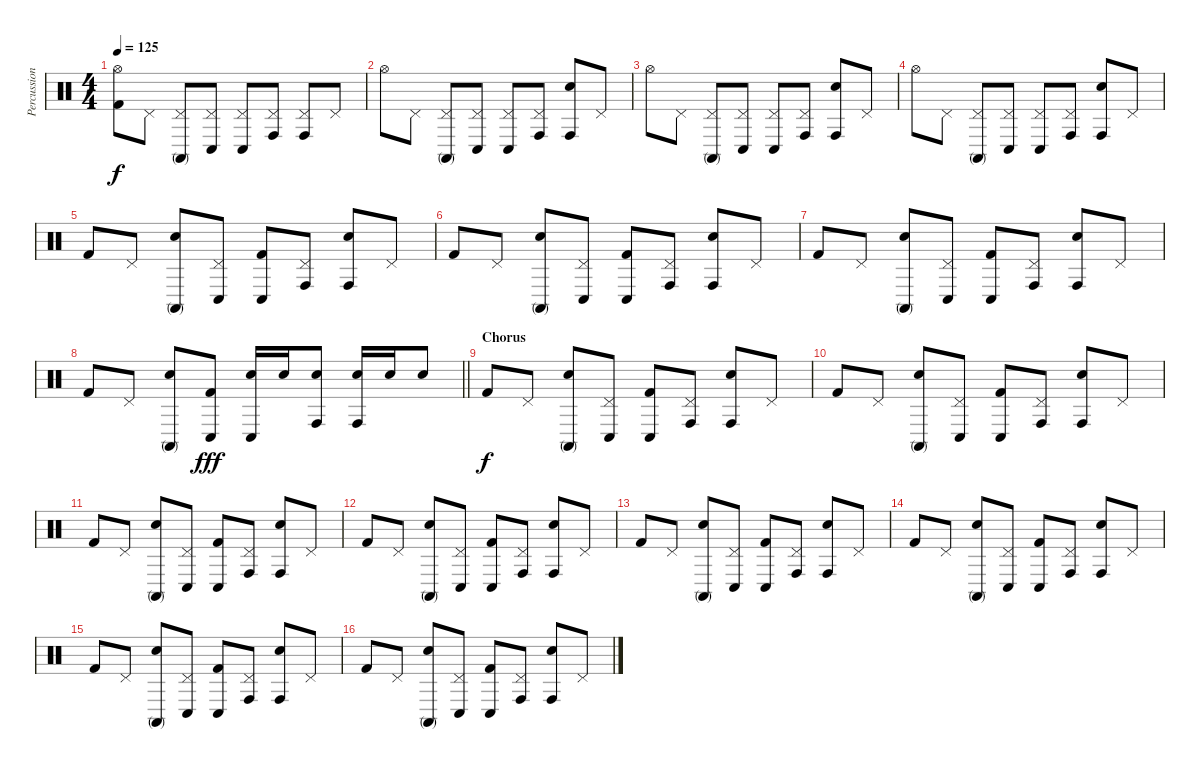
\track ("Percussion" "Percussion") {instrument percussion}
\staff {score}
\articulation defaults
\ts (4 4)
\tempo 125
\clef neutral
\ks c
("Hi-Hat (open)" "Kick (hit) 2").8{dy f} "Pedal Hi-Hat (hit)".8 ("Pedal Hi-Hat (hit)" "Conga high (mute)").8 ("Pedal Hi-Hat (hit)" "Conga low (hit)").8 ("Pedal Hi-Hat (hit)" "Conga low (hit)").8 ("Pedal Hi-Hat (hit)" "Conga high (hit)").8 ("Pedal Hi-Hat (hit)" "Conga high (hit)").8 "Pedal Hi-Hat (hit)".8 |
"Hi-Hat (open)".8 "Pedal Hi-Hat (hit)".8 ("Pedal Hi-Hat (hit)" "Conga high (mute)").8 ("Pedal Hi-Hat (hit)" "Conga low (hit)").8 ("Pedal Hi-Hat (hit)" "Conga low (hit)").8 ("Pedal Hi-Hat (hit)" "Conga high (hit)").8 ("Snare (hit) 2" "Conga high (hit)").8 "Pedal Hi-Hat (hit)".8 |
"Hi-Hat (open)".8 "Pedal Hi-Hat (hit)".8 ("Pedal Hi-Hat (hit)" "Conga high (mute)").8 ("Pedal Hi-Hat (hit)" "Conga low (hit)").8 ("Pedal Hi-Hat (hit)" "Conga low (hit)").8 ("Pedal Hi-Hat (hit)" "Conga high (hit)").8 ("Snare (hit) 2" "Conga high (hit)").8 "Pedal Hi-Hat (hit)".8 |
"Hi-Hat (open)".8 "Pedal Hi-Hat (hit)".8 ("Pedal Hi-Hat (hit)" "Conga high (mute)").8 ("Pedal Hi-Hat (hit)" "Conga low (hit)").8 ("Pedal Hi-Hat (hit)" "Conga low (hit)").8 ("Pedal Hi-Hat (hit)" "Conga high (hit)").8 ("Snare (hit) 2" "Conga high (hit)").8 "Pedal Hi-Hat (hit)".8 |
"Kick (hit) 2".8 "Pedal Hi-Hat (hit)".8 ("Snare (hit) 2" "Conga high (mute)").8 ("Pedal Hi-Hat (hit)" "Conga low (hit)").8 ("Kick (hit) 2" "Conga low (hit)").8 ("Pedal Hi-Hat (hit)" "Conga high (hit)").8 ("Snare (hit) 2" "Conga high (hit)").8 "Pedal Hi-Hat (hit)".8 |
"Kick (hit) 2".8 "Pedal Hi-Hat (hit)".8 ("Snare (hit) 2" "Conga high (mute)").8 ("Pedal Hi-Hat (hit)" "Conga low (hit)").8 ("Kick (hit) 2" "Conga low (hit)").8 ("Pedal Hi-Hat (hit)" "Conga high (hit)").8 ("Snare (hit) 2" "Conga high (hit)").8 "Pedal Hi-Hat (hit)".8 |
"Kick (hit) 2".8 "Pedal Hi-Hat (hit)".8 ("Snare (hit) 2" "Conga high (mute)").8 ("Pedal Hi-Hat (hit)" "Conga low (hit)").8 ("Kick (hit) 2" "Conga low (hit)").8 ("Pedal Hi-Hat (hit)" "Conga high (hit)").8 ("Snare (hit) 2" "Conga high (hit)").8 "Pedal Hi-Hat (hit)".8 |
\barLineRight lightlight "Kick (hit) 2".8 "Pedal Hi-Hat (hit)".8
("Snare (hit) 2" "Conga high (mute)").8 ("Kick (hit) 2" "Conga low (hit)").8{dy fff} ("Electric Snare (hit)" "Conga low (hit)").16 "Electric Snare (hit)".16 ("Electric Snare (hit)" "Conga high (hit)").8 ("Electric Snare (hit)" "Conga high (hit)").16 "Electric Snare (hit)".16 "Electric Snare (hit)".8 |
\section ("" "Chorus")
"Kick (hit) 2".8{dy f} "Pedal Hi-Hat (hit)".8 ("Snare (hit) 2" "Conga high (mute)").8 ("Pedal Hi-Hat (hit)" "Conga low (hit)").8 ("Kick (hit) 2" "Conga low (hit)").8 ("Pedal Hi-Hat (hit)" "Conga high (hit)").8 ("Snare (hit) 2" "Conga high (hit)").8 "Pedal Hi-Hat (hit)".8 |
"Kick (hit) 2".8 "Pedal Hi-Hat (hit)".8 ("Snare (hit) 2" "Conga high (mute)").8 ("Pedal Hi-Hat (hit)" "Conga low (hit)").8 ("Kick (hit) 2" "Conga low (hit)").8 ("Pedal Hi-Hat (hit)" "Conga high (hit)").8 ("Snare (hit) 2" "Conga high (hit)").8 "Pedal Hi-Hat (hit)".8 |
"Kick (hit) 2".8 "Pedal Hi-Hat (hit)".8 ("Snare (hit) 2" "Conga high (mute)").8 ("Pedal Hi-Hat (hit)" "Conga low (hit)").8 ("Kick (hit) 2" "Conga low (hit)").8 ("Pedal Hi-Hat (hit)" "Conga high (hit)").8 ("Snare (hit) 2" "Conga high (hit)").8 "Pedal Hi-Hat (hit)".8 |
"Kick (hit) 2".8 "Pedal Hi-Hat (hit)".8 ("Snare (hit) 2" "Conga high (mute)").8 ("Pedal Hi-Hat (hit)" "Conga low (hit)").8 ("Kick (hit) 2" "Conga low (hit)").8 ("Pedal Hi-Hat (hit)" "Conga high (hit)").8 ("Snare (hit) 2" "Conga high (hit)").8 "Pedal Hi-Hat (hit)".8 |
"Kick (hit) 2".8 "Pedal Hi-Hat (hit)".8 ("Snare (hit) 2" "Conga high (mute)").8 ("Pedal Hi-Hat (hit)" "Conga low (hit)").8 ("Kick (hit) 2" "Conga low (hit)").8 ("Pedal Hi-Hat (hit)" "Conga high (hit)").8 ("Snare (hit) 2" "Conga high (hit)").8 "Pedal Hi-Hat (hit)".8 |
"Kick (hit) 2".8 "Pedal Hi-Hat (hit)".8 ("Snare (hit) 2" "Conga high (mute)").8 ("Pedal Hi-Hat (hit)" "Conga low (hit)").8 ("Kick (hit) 2" "Conga low (hit)").8 ("Pedal Hi-Hat (hit)" "Conga high (hit)").8 ("Snare (hit) 2" "Conga high (hit)").8 "Pedal Hi-Hat (hit)".8 |
"Kick (hit) 2".8 "Pedal Hi-Hat (hit)".8 ("Snare (hit) 2" "Conga high (mute)").8 ("Pedal Hi-Hat (hit)" "Conga low (hit)").8 ("Kick (hit) 2" "Conga low (hit)").8 ("Pedal Hi-Hat (hit)" "Conga high (hit)").8 ("Snare (hit) 2" "Conga high (hit)").8 "Pedal Hi-Hat (hit)".8 |
"Kick (hit) 2".8 "Pedal Hi-Hat (hit)".8 ("Snare (hit) 2" "Conga high (mute)").8 ("Pedal Hi-Hat (hit)" "Conga low (hit)").8 ("Kick (hit) 2" "Conga low (hit)").8 ("Pedal Hi-Hat (hit)" "Conga high (hit)").8 ("Snare (hit) 2" "Conga high (hit)").8 "Pedal Hi-Hat (hit)".8
